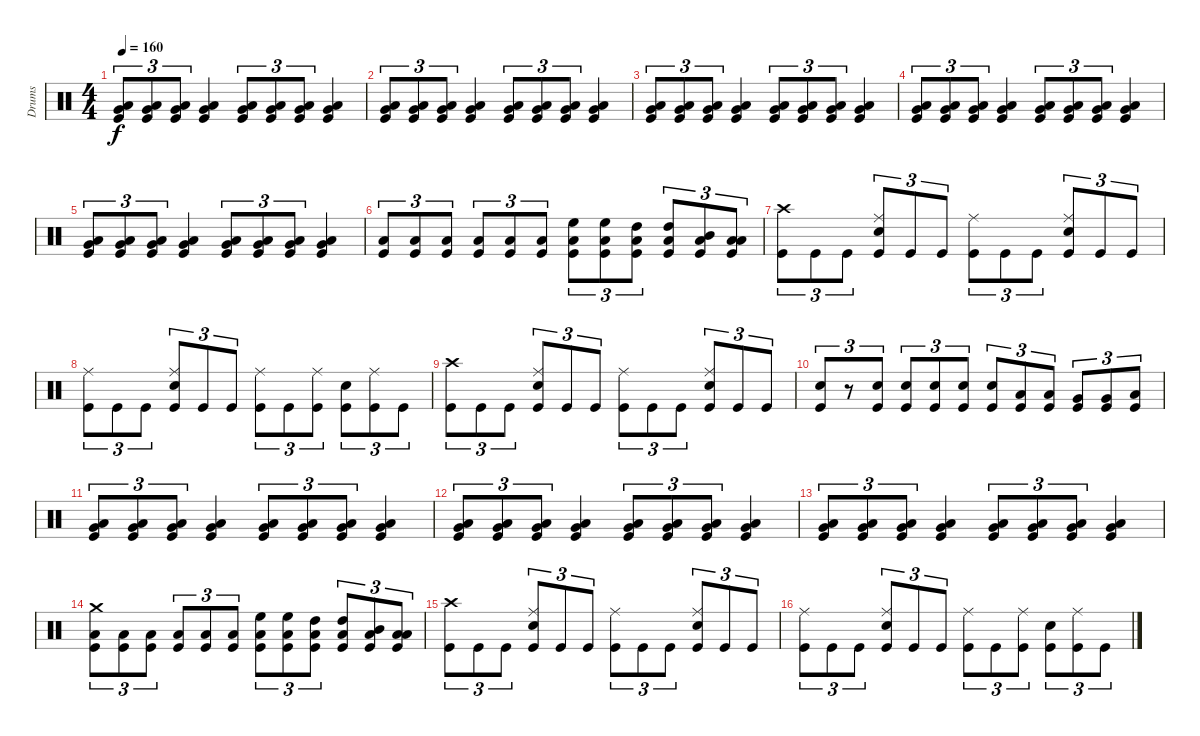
\track ("Drums" "Drums") {instrument percussion}
\staff {score}
\articulation defaults
\ts (4 4)
\tempo 160
\clef neutral
\ks c
("Very Low Tom (hit)" "Low Tom (hit)" "Kick (hit)").8{tu (3 2) dy f} ("Very Low Tom (hit)" "Low Tom (hit)" "Kick (hit)").8{tu (3 2)} ("Very Low Tom (hit)" "Low Tom (hit)" "Kick (hit)").8{tu (3 2)} ("Very Low Tom (hit)" "Low Tom (hit)" "Kick (hit)").4 ("Very Low Tom (hit)" "Low Tom (hit)" "Kick (hit)").8{tu (3 2)} ("Very Low Tom (hit)" "Low Tom (hit)" "Kick (hit)").8{tu (3 2)} ("Very Low Tom (hit)" "Low Tom (hit)" "Kick (hit)").8{tu (3 2)} ("Very Low Tom (hit)" "Low Tom (hit)" "Kick (hit)").4 |
("Very Low Tom (hit)" "Low Tom (hit)" "Kick (hit)").8{tu (3 2)} ("Very Low Tom (hit)" "Low Tom (hit)" "Kick (hit)").8{tu (3 2)} ("Very Low Tom (hit)" "Low Tom (hit)" "Kick (hit)").8{tu (3 2)} ("Very Low Tom (hit)" "Low Tom (hit)" "Kick (hit)").4 ("Very Low Tom (hit)" "Low Tom (hit)" "Kick (hit)").8{tu (3 2)} ("Very Low Tom (hit)" "Low Tom (hit)" "Kick (hit)").8{tu (3 2)} ("Very Low Tom (hit)" "Low Tom (hit)" "Kick (hit)").8{tu (3 2)} ("Very Low Tom (hit)" "Low Tom (hit)" "Kick (hit)").4 |
("Very Low Tom (hit)" "Low Tom (hit)" "Kick (hit)").8{tu (3 2)} ("Very Low Tom (hit)" "Low Tom (hit)" "Kick (hit)").8{tu (3 2)} ("Very Low Tom (hit)" "Low Tom (hit)" "Kick (hit)").8{tu (3 2)} ("Very Low Tom (hit)" "Low Tom (hit)" "Kick (hit)").4 ("Very Low Tom (hit)" "Low Tom (hit)" "Kick (hit)").8{tu (3 2)} ("Very Low Tom (hit)" "Low Tom (hit)" "Kick (hit)").8{tu (3 2)} ("Very Low Tom (hit)" "Low Tom (hit)" "Kick (hit)").8{tu (3 2)} ("Very Low Tom (hit)" "Low Tom (hit)" "Kick (hit)").4 |
("Very Low Tom (hit)" "Low Tom (hit)" "Kick (hit)").8{tu (3 2)} ("Very Low Tom (hit)" "Low Tom (hit)" "Kick (hit)").8{tu (3 2)} ("Very Low Tom (hit)" "Low Tom (hit)" "Kick (hit)").8{tu (3 2)} ("Very Low Tom (hit)" "Low Tom (hit)" "Kick (hit)").4 ("Very Low Tom (hit)" "Low Tom (hit)" "Kick (hit)").8{tu (3 2)} ("Very Low Tom (hit)" "Low Tom (hit)" "Kick (hit)").8{tu (3 2)} ("Very Low Tom (hit)" "Low Tom (hit)" "Kick (hit)").8{tu (3 2)} ("Very Low Tom (hit)" "Low Tom (hit)" "Kick (hit)").4 |
("Very Low Tom (hit)" "Low Tom (hit)" "Kick (hit)").8{tu (3 2)} ("Very Low Tom (hit)" "Low Tom (hit)" "Kick (hit)").8{tu (3 2)} ("Very Low Tom (hit)" "Low Tom (hit)" "Kick (hit)").8{tu (3 2)} ("Very Low Tom (hit)" "Low Tom (hit)" "Kick (hit)").4 ("Very Low Tom (hit)" "Low Tom (hit)" "Kick (hit)").8{tu (3 2)} ("Very Low Tom (hit)" "Low Tom (hit)" "Kick (hit)").8{tu (3 2)} ("Very Low Tom (hit)" "Low Tom (hit)" "Kick (hit)").8{tu (3 2)} ("Very Low Tom (hit)" "Low Tom (hit)" "Kick (hit)").4 |
("Low Tom (hit)" "Kick (hit)").8{tu (3 2)} ("Low Tom (hit)" "Kick (hit)").8{tu (3 2)} ("Low Tom (hit)" "Kick (hit)").8{tu (3 2)} ("Low Tom (hit)" "Kick (hit)").8{tu (3 2)} ("Low Tom (hit)" "Kick (hit)").8{tu (3 2)} ("Low Tom (hit)" "Kick (hit)").8{tu (3 2)} ("High Floor Tom (hit)" "Low Tom (hit)" "Kick (hit)").8{tu (3 2)} ("High Floor Tom (hit)" "Low Tom (hit)" "Kick (hit)").8{tu (3 2)} ("High Tom (hit)" "Low Tom (hit)" "Kick (hit)").8{tu (3 2)} ("High Tom (hit)" "Low Tom (hit)" "Kick (hit)").8{tu (3 2)} ("Mid Tom (hit)" "Low Tom (hit)" "Kick (hit)").8{tu (3 2)} ("Low Tom (hit)" "Low Tom (hit)" "Kick (hit)").8{tu (3 2)} |
("Crash high (hit)" "Kick (hit)").8{tu (3 2)} "Kick (hit)".8{tu (3 2)} "Kick (hit)".8{tu (3 2)} ("Ride (middle)" "Snare (hit) 2" "Kick (hit)").8{tu (3 2)} "Kick (hit)".8{tu (3 2)} "Kick (hit)".8{tu (3 2)} ("Ride (middle)" "Kick (hit)").8{tu (3 2)} "Kick (hit)".8{tu (3 2)} "Kick (hit)".8{tu (3 2)} ("Ride (middle)" "Snare (hit) 2" "Kick (hit)").8{tu (3 2)} "Kick (hit)".8{tu (3 2)} "Kick (hit)".8{tu (3 2)} |
("Ride (middle)" "Kick (hit)").8{tu (3 2)} "Kick (hit)".8{tu (3 2)} "Kick (hit)".8{tu (3 2)} ("Ride (middle)" "Snare (hit) 2" "Kick (hit)").8{tu (3 2)} "Kick (hit)".8{tu (3 2)} "Kick (hit)".8{tu (3 2)} ("Ride (middle)" "Kick (hit)").8{tu (3 2)} "Kick (hit)".8{tu (3 2)} ("Ride (middle)" "Kick (hit)").8{tu (3 2)} ("Snare (hit) 2" "Kick (hit)").8{tu (3 2)} ("Ride (middle)" "Kick (hit)").8{tu (3 2)} "Kick (hit)".8{tu (3 2)} |
("Crash high (hit)" "Kick (hit)").8{tu (3 2)} "Kick (hit)".8{tu (3 2)} "Kick (hit)".8{tu (3 2)} ("Ride (middle)" "Snare (hit) 2" "Kick (hit)").8{tu (3 2)} "Kick (hit)".8{tu (3 2)} "Kick (hit)".8{tu (3 2)} ("Ride (middle)" "Kick (hit)").8{tu (3 2)} "Kick (hit)".8{tu (3 2)} "Kick (hit)".8{tu (3 2)} ("Ride (middle)" "Snare (hit) 2" "Kick (hit)").8{tu (3 2)} "Kick (hit)".8{tu (3 2)} "Kick (hit)".8{tu (3 2)} |
("Snare (hit) 2" "Kick (hit)").8{tu (3 2)} r.8{tu (3 2)} ("Snare (hit) 2" "Kick (hit)").8{tu (3 2)} ("Snare (hit) 2" "Kick (hit)").8{tu (3 2)} ("Snare (hit) 2" "Kick (hit)").8{tu (3 2)} ("Snare (hit) 2" "Kick (hit)").8{tu (3 2)} ("Snare (hit) 2" "Kick (hit)").8{tu (3 2)} ("Low Tom (hit)" "Kick (hit)").8{tu (3 2)} ("Low Tom (hit)" "Kick (hit)").8{tu (3 2)} ("Very Low Tom (hit)" "Kick (hit)").8{tu (3 2)} ("Very Low Tom (hit)" "Kick (hit)").8{tu (3 2)} ("Low Floor Tom (hit)" "Kick (hit)").8{tu (3 2)} |
("Very Low Tom (hit)" "Low Tom (hit)" "Kick (hit)").8{tu (3 2)} ("Very Low Tom (hit)" "Low Tom (hit)" "Kick (hit)").8{tu (3 2)} ("Very Low Tom (hit)" "Low Tom (hit)" "Kick (hit)").8{tu (3 2)} ("Very Low Tom (hit)" "Low Tom (hit)" "Kick (hit)").4 ("Very Low Tom (hit)" "Low Tom (hit)" "Kick (hit)").8{tu (3 2)} ("Very Low Tom (hit)" "Low Tom (hit)" "Kick (hit)").8{tu (3 2)} ("Very Low Tom (hit)" "Low Tom (hit)" "Kick (hit)").8{tu (3 2)} ("Very Low Tom (hit)" "Low Tom (hit)" "Kick (hit)").4 |
("Very Low Tom (hit)" "Low Tom (hit)" "Kick (hit)").8{tu (3 2)} ("Very Low Tom (hit)" "Low Tom (hit)" "Kick (hit)").8{tu (3 2)} ("Very Low Tom (hit)" "Low Tom (hit)" "Kick (hit)").8{tu (3 2)} ("Very Low Tom (hit)" "Low Tom (hit)" "Kick (hit)").4 ("Very Low Tom (hit)" "Low Tom (hit)" "Kick (hit)").8{tu (3 2)} ("Very Low Tom (hit)" "Low Tom (hit)" "Kick (hit)").8{tu (3 2)} ("Very Low Tom (hit)" "Low Tom (hit)" "Kick (hit)").8{tu (3 2)} ("Very Low Tom (hit)" "Low Tom (hit)" "Kick (hit)").4 |
("Very Low Tom (hit)" "Low Tom (hit)" "Kick (hit)").8{tu (3 2)} ("Very Low Tom (hit)" "Low Tom (hit)" "Kick (hit)").8{tu (3 2)} ("Very Low Tom (hit)" "Low Tom (hit)" "Kick (hit)").8{tu (3 2)} ("Very Low Tom (hit)" "Low Tom (hit)" "Kick (hit)").4 ("Very Low Tom (hit)" "Low Tom (hit)" "Kick (hit)").8{tu (3 2)} ("Very Low Tom (hit)" "Low Tom (hit)" "Kick (hit)").8{tu (3 2)} ("Very Low Tom (hit)" "Low Tom (hit)" "Kick (hit)").8{tu (3 2)} ("Very Low Tom (hit)" "Low Tom (hit)" "Kick (hit)").4 |
("Crash medium (hit)" "Low Tom (hit)" "Kick (hit)").8{tu (3 2)} ("Low Tom (hit)" "Kick (hit)").8{tu (3 2)} ("Low Tom (hit)" "Kick (hit)").8{tu (3 2)} ("Low Tom (hit)" "Kick (hit)").8{tu (3 2)} ("Low Tom (hit)" "Kick (hit)").8{tu (3 2)} ("Low Tom (hit)" "Kick (hit)").8{tu (3 2)} ("High Floor Tom (hit)" "Low Tom (hit)" "Kick (hit)").8{tu (3 2)} ("High Floor Tom (hit)" "Low Tom (hit)" "Kick (hit)").8{tu (3 2)} ("High Tom (hit)" "Low Tom (hit)" "Kick (hit)").8{tu (3 2)} ("High Tom (hit)" "Low Tom (hit)" "Kick (hit)").8{tu (3 2)} ("Mid Tom (hit)" "Low Tom (hit)" "Kick (hit)").8{tu (3 2)} ("Low Tom (hit)" "Low Tom (hit)" "Kick (hit)").8{tu (3 2)} |
("Crash high (hit)" "Kick (hit)").8{tu (3 2)} "Kick (hit)".8{tu (3 2)} "Kick (hit)".8{tu (3 2)} ("Ride (middle)" "Snare (hit) 2" "Kick (hit)").8{tu (3 2)} "Kick (hit)".8{tu (3 2)} "Kick (hit)".8{tu (3 2)} ("Ride (middle)" "Kick (hit)").8{tu (3 2)} "Kick (hit)".8{tu (3 2)} "Kick (hit)".8{tu (3 2)} ("Ride (middle)" "Snare (hit) 2" "Kick (hit)").8{tu (3 2)} "Kick (hit)".8{tu (3 2)} "Kick (hit)".8{tu (3 2)} |
("Ride (middle)" "Kick (hit)").8{tu (3 2)} "Kick (hit)".8{tu (3 2)} "Kick (hit)".8{tu (3 2)} ("Ride (middle)" "Snare (hit) 2" "Kick (hit)").8{tu (3 2)} "Kick (hit)".8{tu (3 2)} "Kick (hit)".8{tu (3 2)} ("Ride (middle)" "Kick (hit)").8{tu (3 2)} "Kick (hit)".8{tu (3 2)} ("Ride (middle)" "Kick (hit)").8{tu (3 2)} ("Snare (hit) 2" "Kick (hit)").8{tu (3 2)} ("Ride (middle)" "Kick (hit)").8{tu (3 2)} "Kick (hit)".8{tu (3 2)}
